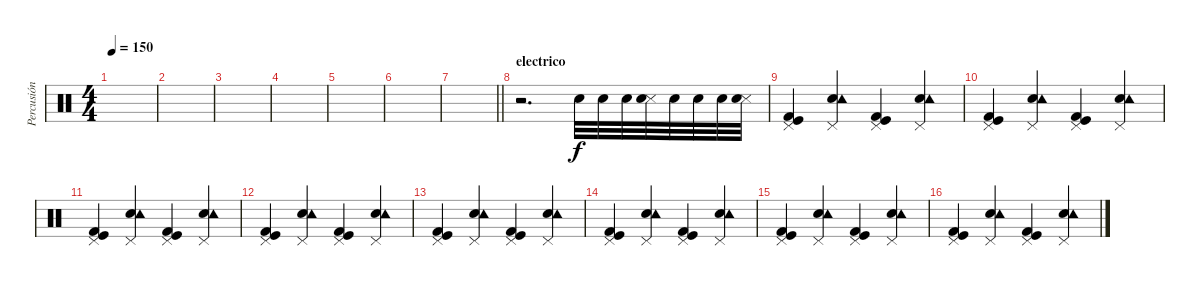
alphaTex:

\track ("Percusión" "Percusión") {instrument percussion}
\staff {score}
\articulation defaults
\ts (4 4)
\tempo 150
\clef neutral
\ks c
|
|
|
|
|
|
\barLineRight lightlight
|
\section ("" "electrico")
r.2{d} "Snare (hit) 2".32 "Snare (hit) 2".32 "Snare (hit) 2".32 ("Snare (side stick) 3" "Snare (hit) 2").32 "Snare (hit) 2".32 "Snare (hit) 2".32 "Snare (hit) 2".32 ("Snare (side stick) 3" "Snare (hit) 2").32 |
("Kick (hit)" "Pedal Hi-Hat (hit)" "Kick (hit) 2").4 ("Electric Snare (hit)" "Pedal Hi-Hat (hit)" "Tambourine (hit)").4 ("Kick (hit)" "Pedal Hi-Hat (hit)" "Kick (hit) 2").4 ("Electric Snare (hit)" "Pedal Hi-Hat (hit)" "Tambourine (hit)").4 |
("Kick (hit)" "Pedal Hi-Hat (hit)" "Kick (hit) 2").4 ("Electric Snare (hit)" "Pedal Hi-Hat (hit)" "Tambourine (hit)").4 ("Kick (hit)" "Pedal Hi-Hat (hit)" "Kick (hit) 2").4 ("Electric Snare (hit)" "Pedal Hi-Hat (hit)" "Tambourine (hit)").4 |
("Kick (hit)" "Pedal Hi-Hat (hit)" "Kick (hit) 2").4 ("Electric Snare (hit)" "Pedal Hi-Hat (hit)" "Tambourine (hit)").4 ("Kick (hit)" "Pedal Hi-Hat (hit)" "Kick (hit) 2").4 ("Electric Snare (hit)" "Pedal Hi-Hat (hit)" "Tambourine (hit)").4 |
("Kick (hit)" "Pedal Hi-Hat (hit)" "Kick (hit) 2").4 ("Electric Snare (hit)" "Pedal Hi-Hat (hit)" "Tambourine (hit)").4 ("Kick (hit)" "Pedal Hi-Hat (hit)" "Kick (hit) 2").4 ("Electric Snare (hit)" "Pedal Hi-Hat (hit)" "Tambourine (hit)").4 |
("Kick (hit)" "Pedal Hi-Hat (hit)" "Kick (hit) 2").4 ("Electric Snare (hit)" "Pedal Hi-Hat (hit)" "Tambourine (hit)").4 ("Kick (hit)" "Pedal Hi-Hat (hit)" "Kick (hit) 2").4 ("Electric Snare (hit)" "Pedal Hi-Hat (hit)" "Tambourine (hit)").4 |
("Kick (hit)" "Pedal Hi-Hat (hit)" "Kick (hit) 2").4 ("Electric Snare (hit)" "Pedal Hi-Hat (hit)" "Tambourine (hit)").4 ("Kick (hit)" "Pedal Hi-Hat (hit)" "Kick (hit) 2").4 ("Electric Snare (hit)" "Pedal Hi-Hat (hit)" "Tambourine (hit)").4 |
("Kick (hit)" "Pedal Hi-Hat (hit)" "Kick (hit) 2").4 ("Electric Snare (hit)" "Pedal Hi-Hat (hit)" "Tambourine (hit)").4 ("Kick (hit)" "Pedal Hi-Hat (hit)" "Kick (hit) 2").4 ("Electric Snare (hit)" "Pedal Hi-Hat (hit)" "Tambourine (hit)").4 |
("Kick (hit)" "Pedal Hi-Hat (hit)" "Kick (hit) 2").4 ("Electric Snare (hit)" "Pedal Hi-Hat (hit)" "Tambourine (hit)").4 ("Kick (hit)" "Pedal Hi-Hat (hit)" "Kick (hit) 2").4 ("Electric Snare (hit)" "Pedal Hi-Hat (hit)" "Tambourine (hit)").4
